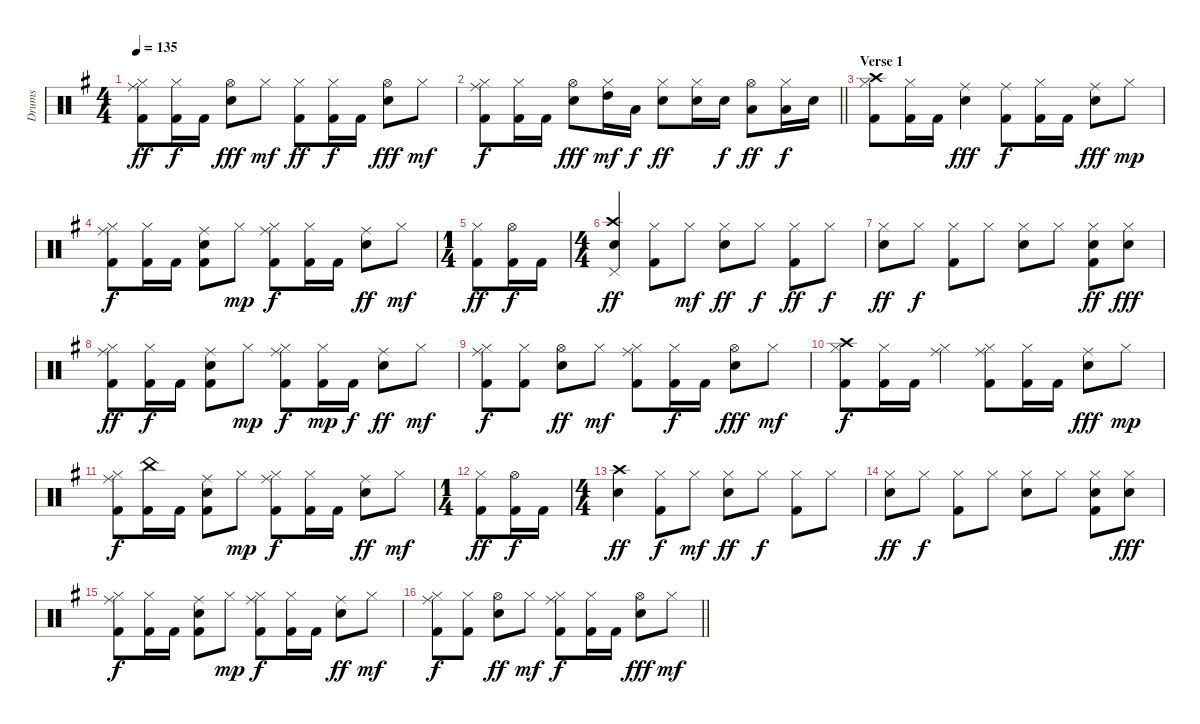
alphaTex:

\track ("Drums" "Drums") {instrument percussion}
\staff {score}
\articulation defaults
\ts (4 4)
\tempo 135
\clef neutral
\ks g
("Hi-Hat (closed)" "Ride (middle)" "Kick (hit) 2").8{dy ff} ("Hi-Hat (closed)" "Kick (hit) 2").16{dy f} "Kick (hit) 2".16 ("Hi-Hat (open)" "Electric Snare (hit)").8{dy fff} "Hi-Hat (closed)".8{dy mf} ("Hi-Hat (closed)" "Kick (hit) 2").8{dy ff} ("Hi-Hat (closed)" "Kick (hit) 2").16{dy f} "Kick (hit) 2".16 ("Hi-Hat (open)" "Electric Snare (hit)").8{dy fff} "Hi-Hat (closed)".8{dy mf} |
\barLineRight lightlight
("Hi-Hat (closed)" "Ride (middle)" "Kick (hit) 2").8{dy f} ("Hi-Hat (closed)" "Kick (hit) 2").16 "Kick (hit) 2".16 ("Hi-Hat (open)" "Electric Snare (hit)").8{dy fff} ("Hi-Hat (closed)" "High Tom (hit)").16{dy mf} "Low Tom (hit)".16{dy f} ("Hi-Hat (closed)" "Electric Snare (hit)").8{dy ff} ("Hi-Hat (closed)" "Electric Snare (hit)").16 "Electric Snare (hit)".16{dy f} ("Hi-Hat (open)" "Low Tom (hit)").8{dy ff} ("Hi-Hat (closed)" "Low Tom (hit)").16{dy f} "Electric Snare (hit)".16 |
\section ("" "Verse 1")
("Hi-Hat (closed)" "Crash high (hit)" "Kick (hit) 2").8 ("Hi-Hat (closed)" "Kick (hit) 2").16 "Kick (hit) 2".16 ("Ride (middle)" "Electric Snare (hit)").4{dy fff} ("Ride (middle)" "Kick (hit) 2").8{dy f} ("Hi-Hat (closed)" "Kick (hit) 2").16 "Kick (hit) 2".16 ("Ride (middle)" "Electric Snare (hit)").8{dy fff} "Hi-Hat (closed)".8{dy mp} |
("Hi-Hat (closed)" "Ride (middle)" "Kick (hit) 2").8{dy f} ("Hi-Hat (closed)" "Kick (hit) 2").16 "Kick (hit) 2".16 ("Ride (middle)" "Electric Snare (hit)" "Kick (hit) 2").8 "Hi-Hat (closed)".8{dy mp} ("Hi-Hat (closed)" "Ride (middle)" "Kick (hit) 2").8{dy f} ("Hi-Hat (closed)" "Kick (hit) 2").16 "Kick (hit) 2".16 ("Ride (middle)" "Electric Snare (hit)").8{dy ff} "Hi-Hat (closed)".8{dy mf} |
\ts (1 4)
("Hi-Hat (closed)" "Kick (hit) 2").8{dy ff} ("Hi-Hat (open)" "Kick (hit) 2").16{dy f} "Kick (hit) 2".16 |
\ts (4 4)
("Pedal Hi-Hat (hit)" "Crash high (hit)" "Electric Snare (hit)").4{dy ff} ("Hi-Hat (closed)" "Kick (hit) 2").8 "Hi-Hat (closed)".8{dy mf} ("Hi-Hat (closed)" "Electric Snare (hit)").8{dy ff} "Hi-Hat (closed)".8{dy f} ("Hi-Hat (closed)" "Kick (hit) 2").8{dy ff} "Hi-Hat (closed)".8{dy f} |
("Hi-Hat (closed)" "Electric Snare (hit)").8{dy ff} "Hi-Hat (closed)".8{dy f} ("Hi-Hat (closed)" "Kick (hit) 2").8 "Hi-Hat (closed)".8 ("Hi-Hat (closed)" "Electric Snare (hit)").8 "Hi-Hat (closed)".8 ("Hi-Hat (closed)" "Electric Snare (hit)" "Kick (hit) 2").8{dy ff} ("Hi-Hat (closed)" "Electric Snare (hit)").8{dy fff} |
("Hi-Hat (closed)" "Ride (middle)" "Kick (hit) 2").8{dy ff} ("Hi-Hat (closed)" "Kick (hit) 2").16{dy f} "Kick (hit) 2".16 ("Ride (middle)" "Electric Snare (hit)" "Kick (hit) 2").8 "Hi-Hat (closed)".8{dy mp} ("Hi-Hat (closed)" "Ride (middle)" "Kick (hit) 2").8{dy f} ("Hi-Hat (closed)" "Kick (hit) 2").16{dy mp} "Kick (hit) 2".16{dy f} ("Ride (middle)" "Electric Snare (hit)").8{dy ff} "Hi-Hat (closed)".8{dy mf} |
("Hi-Hat (closed)" "Ride (middle)" "Kick (hit) 2").8{dy f} ("Hi-Hat (closed)" "Kick (hit) 2").8 ("Hi-Hat (open)" "Electric Snare (hit)").8{dy ff} "Hi-Hat (closed)".8{dy mf} ("Hi-Hat (closed)" "Ride (middle)" "Kick (hit) 2").8 ("Hi-Hat (closed)" "Kick (hit) 2").16{dy f} "Kick (hit) 2".16 ("Hi-Hat (open)" "Electric Snare (hit)").8{dy fff} "Hi-Hat (closed)".8{dy mf} |
("Hi-Hat (closed)" "Crash high (hit)" "Kick (hit) 2").8{dy f} ("Hi-Hat (closed)" "Kick (hit) 2").16 "Kick (hit) 2".16 ("Hi-Hat (closed)" "Ride (middle)").4 ("Hi-Hat (closed)" "Ride (middle)" "Kick (hit) 2").8 ("Hi-Hat (closed)" "Kick (hit) 2").16 "Kick (hit) 2".16 ("Ride (middle)" "Electric Snare (hit)").8{dy fff} "Hi-Hat (closed)".8{dy mp} |
("Hi-Hat (closed)" "Ride (middle)" "Kick (hit) 2").8{dy f} ("China (hit)" "Kick (hit) 2").16 "Kick (hit) 2".16 ("Ride (middle)" "Electric Snare (hit)" "Kick (hit) 2").8 "Hi-Hat (closed)".8{dy mp} ("Hi-Hat (closed)" "Ride (middle)" "Kick (hit) 2").8{dy f} ("Hi-Hat (closed)" "Kick (hit) 2").16 "Kick (hit) 2".16 ("Ride (middle)" "Electric Snare (hit)").8{dy ff} "Hi-Hat (closed)".8{dy mf} |
\ts (1 4)
("Hi-Hat (closed)" "Kick (hit) 2").8{dy ff} ("Hi-Hat (open)" "Kick (hit) 2").16{dy f} "Kick (hit) 2".16 |
\ts (4 4)
("Crash high (hit)" "Electric Snare (hit)").4{dy ff} ("Hi-Hat (closed)" "Kick (hit) 2").8{dy f} "Hi-Hat (closed)".8{dy mf} ("Hi-Hat (closed)" "Electric Snare (hit)").8{dy ff} "Hi-Hat (closed)".8{dy f} ("Hi-Hat (closed)" "Kick (hit) 2").8 "Hi-Hat (closed)".8 |
("Hi-Hat (closed)" "Electric Snare (hit)").8{dy ff} "Hi-Hat (closed)".8{dy f} ("Hi-Hat (closed)" "Kick (hit) 2").8 "Hi-Hat (closed)".8 ("Hi-Hat (closed)" "Electric Snare (hit)").8 "Hi-Hat (closed)".8 ("Hi-Hat (closed)" "Electric Snare (hit)" "Kick (hit) 2").8 ("Hi-Hat (closed)" "Electric Snare (hit)").8{dy fff} |
("Hi-Hat (closed)" "Ride (middle)" "Kick (hit) 2").8{dy f} ("Hi-Hat (closed)" "Kick (hit) 2").16 "Kick (hit) 2".16 ("Ride (middle)" "Electric Snare (hit)" "Kick (hit) 2").8 "Hi-Hat (closed)".8{dy mp} ("Hi-Hat (closed)" "Ride (middle)" "Kick (hit) 2").8{dy f} ("Hi-Hat (closed)" "Kick (hit) 2").16 "Kick (hit) 2".16 ("Ride (middle)" "Electric Snare (hit)").8{dy ff} "Hi-Hat (closed)".8{dy mf} |
\barLineRight lightlight
("Hi-Hat (closed)" "Ride (middle)" "Kick (hit) 2").8{dy f} ("Hi-Hat (closed)" "Kick (hit) 2").8 ("Hi-Hat (open)" "Electric Snare (hit)").8{dy ff} "Hi-Hat (closed)".8{dy mf} ("Hi-Hat (closed)" "Ride (middle)" "Kick (hit) 2").8{dy f} ("Hi-Hat (closed)" "Kick (hit) 2").16 "Kick (hit) 2".16 ("Hi-Hat (open)" "Electric Snare (hit)").8{dy fff} "Hi-Hat (closed)".8{dy mf}
